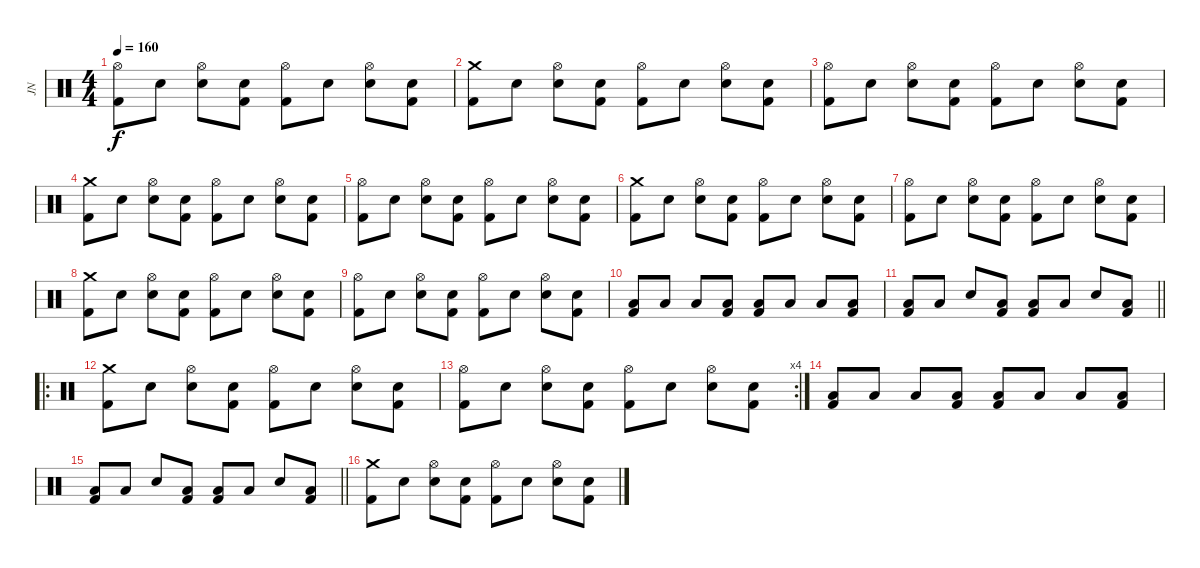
\track ("JN" "JN") {instrument percussion}
\staff {score}
\articulation defaults
\ts (4 4)
\tempo 160
\clef neutral
\ks c
("Hi-Hat (open)" "Kick (hit) 2").8{dy f} "Snare (hit)".8 ("Hi-Hat (open)" "Electric Snare (hit)").8 ("Snare (hit)" "Kick (hit) 2").8 ("Hi-Hat (open)" "Kick (hit) 2").8 "Snare (hit)".8 ("Hi-Hat (open)" "Electric Snare (hit)").8 ("Snare (hit)" "Kick (hit) 2").8 |
("Crash medium (hit)" "Kick (hit) 2").8 "Snare (hit)".8 ("Hi-Hat (open)" "Electric Snare (hit)").8 ("Snare (hit)" "Kick (hit) 2").8 ("Hi-Hat (open)" "Kick (hit) 2").8 "Snare (hit)".8 ("Hi-Hat (open)" "Electric Snare (hit)").8 ("Snare (hit)" "Kick (hit) 2").8 |
("Hi-Hat (open)" "Kick (hit) 2").8 "Snare (hit)".8 ("Hi-Hat (open)" "Electric Snare (hit)").8 ("Snare (hit)" "Kick (hit) 2").8 ("Hi-Hat (open)" "Kick (hit) 2").8 "Snare (hit)".8 ("Hi-Hat (open)" "Electric Snare (hit)").8 ("Snare (hit)" "Kick (hit) 2").8 |
("Crash medium (hit)" "Kick (hit) 2").8 "Snare (hit)".8 ("Hi-Hat (open)" "Electric Snare (hit)").8 ("Snare (hit)" "Kick (hit) 2").8 ("Hi-Hat (open)" "Kick (hit) 2").8 "Snare (hit)".8 ("Hi-Hat (open)" "Electric Snare (hit)").8 ("Snare (hit)" "Kick (hit) 2").8 |
("Hi-Hat (open)" "Kick (hit) 2").8 "Snare (hit)".8 ("Hi-Hat (open)" "Electric Snare (hit)").8 ("Snare (hit)" "Kick (hit) 2").8 ("Hi-Hat (open)" "Kick (hit) 2").8 "Snare (hit)".8 ("Hi-Hat (open)" "Electric Snare (hit)").8 ("Snare (hit)" "Kick (hit) 2").8 |
("Crash medium (hit)" "Kick (hit) 2").8 "Snare (hit)".8 ("Hi-Hat (open)" "Electric Snare (hit)").8 ("Snare (hit)" "Kick (hit) 2").8 ("Hi-Hat (open)" "Kick (hit) 2").8 "Snare (hit)".8 ("Hi-Hat (open)" "Electric Snare (hit)").8 ("Snare (hit)" "Kick (hit) 2").8 |
("Hi-Hat (open)" "Kick (hit) 2").8 "Snare (hit)".8 ("Hi-Hat (open)" "Electric Snare (hit)").8 ("Snare (hit)" "Kick (hit) 2").8 ("Hi-Hat (open)" "Kick (hit) 2").8 "Snare (hit)".8 ("Hi-Hat (open)" "Electric Snare (hit)").8 ("Snare (hit)" "Kick (hit) 2").8 |
("Crash medium (hit)" "Kick (hit) 2").8 "Snare (hit)".8 ("Hi-Hat (open)" "Electric Snare (hit)").8 ("Snare (hit)" "Kick (hit) 2").8 ("Hi-Hat (open)" "Kick (hit) 2").8 "Snare (hit)".8 ("Hi-Hat (open)" "Electric Snare (hit)").8 ("Snare (hit)" "Kick (hit) 2").8 |
("Hi-Hat (open)" "Kick (hit) 2").8 "Snare (hit)".8 ("Hi-Hat (open)" "Electric Snare (hit)").8 ("Snare (hit)" "Kick (hit) 2").8 ("Hi-Hat (open)" "Kick (hit) 2").8 "Snare (hit)".8 ("Hi-Hat (open)" "Electric Snare (hit)").8 ("Snare (hit)" "Kick (hit) 2").8 |
("Low Tom (hit)" "Kick (hit) 2").8 "Low Tom (hit)".8 "Low Tom (hit)".8 ("Low Tom (hit)" "Kick (hit) 2").8 ("Low Tom (hit)" "Kick (hit) 2").8 "Low Tom (hit)".8 "Low Tom (hit)".8 ("Low Tom (hit)" "Kick (hit) 2").8 |
\barLineRight lightlight
("Low Tom (hit)" "Kick (hit) 2").8 "Low Tom (hit)".8 "Electric Snare (hit)".8 ("Low Tom (hit)" "Kick (hit) 2").8 ("Low Tom (hit)" "Kick (hit) 2").8 "Low Tom (hit)".8 "Electric Snare (hit)".8 ("Low Tom (hit)" "Kick (hit) 2").8 |
\ro
("Crash medium (hit)" "Kick (hit) 2").8 "Snare (hit)".8 ("Hi-Hat (open)" "Electric Snare (hit)").8 ("Snare (hit)" "Kick (hit) 2").8 ("Hi-Hat (open)" "Kick (hit) 2").8 "Snare (hit)".8 ("Hi-Hat (open)" "Electric Snare (hit)").8 ("Snare (hit)" "Kick (hit) 2").8 |
\rc 4
("Hi-Hat (open)" "Kick (hit) 2").8 "Snare (hit)".8 ("Hi-Hat (open)" "Electric Snare (hit)").8 ("Snare (hit)" "Kick (hit) 2").8 ("Hi-Hat (open)" "Kick (hit) 2").8 "Snare (hit)".8 ("Hi-Hat (open)" "Electric Snare (hit)").8 ("Snare (hit)" "Kick (hit) 2").8 |
("Low Tom (hit)" "Kick (hit) 2").8 "Low Tom (hit)".8 "Low Tom (hit)".8 ("Low Tom (hit)" "Kick (hit) 2").8 ("Low Tom (hit)" "Kick (hit) 2").8 "Low Tom (hit)".8 "Low Tom (hit)".8 ("Low Tom (hit)" "Kick (hit) 2").8 |
\barLineRight lightlight
("Low Tom (hit)" "Kick (hit) 2").8 "Low Tom (hit)".8 "Electric Snare (hit)".8 ("Low Tom (hit)" "Kick (hit) 2").8 ("Low Tom (hit)" "Kick (hit) 2").8 "Low Tom (hit)".8 "Electric Snare (hit)".8 ("Low Tom (hit)" "Kick (hit) 2").8 |
("Crash medium (hit)" "Kick (hit) 2").8 "Snare (hit)".8 ("Hi-Hat (open)" "Electric Snare (hit)").8 ("Snare (hit)" "Kick (hit) 2").8 ("Hi-Hat (open)" "Kick (hit) 2").8 "Snare (hit)".8 ("Hi-Hat (open)" "Electric Snare (hit)").8 ("Snare (hit)" "Kick (hit) 2").8
